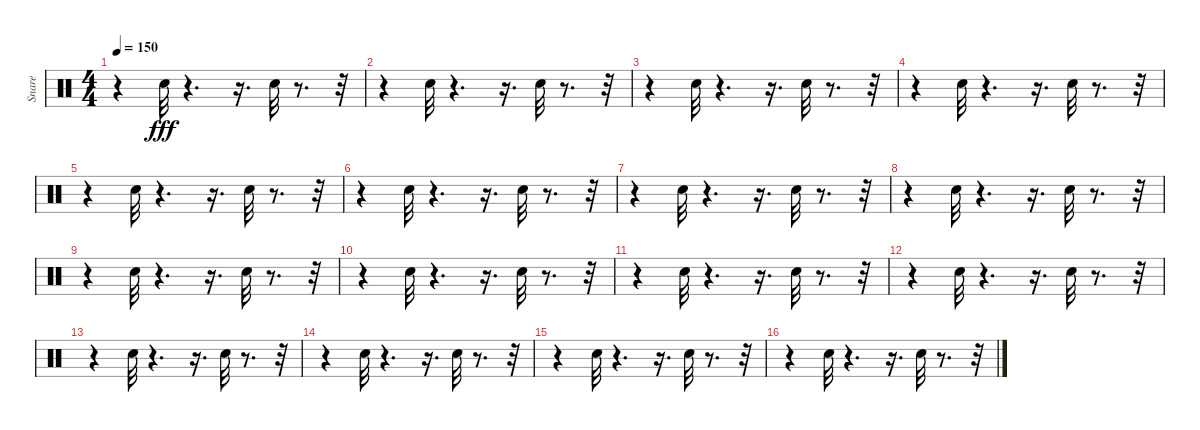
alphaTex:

\track ("Snare" "Snare") {instrument percussion}
\staff {score}
\articulation defaults
\ts (4 4)
\tempo 150
\clef neutral
\ks c
r.4{dy fff} "Electric Snare (hit)".32 r.4{d} r.16{d} "Electric Snare (hit)".32 r.8{d} r.32 |
r.4 "Electric Snare (hit)".32 r.4{d} r.16{d} "Electric Snare (hit)".32 r.8{d} r.32 |
r.4 "Electric Snare (hit)".32 r.4{d} r.16{d} "Electric Snare (hit)".32 r.8{d} r.32 |
r.4 "Electric Snare (hit)".32 r.4{d} r.16{d} "Electric Snare (hit)".32 r.8{d} r.32 |
r.4 "Electric Snare (hit)".32 r.4{d} r.16{d} "Electric Snare (hit)".32 r.8{d} r.32 |
r.4 "Electric Snare (hit)".32 r.4{d} r.16{d} "Electric Snare (hit)".32 r.8{d} r.32 |
r.4 "Electric Snare (hit)".32 r.4{d} r.16{d} "Electric Snare (hit)".32 r.8{d} r.32 |
r.4 "Electric Snare (hit)".32 r.4{d} r.16{d} "Electric Snare (hit)".32 r.8{d} r.32 |
r.4 "Electric Snare (hit)".32 r.4{d} r.16{d} "Electric Snare (hit)".32 r.8{d} r.32 |
r.4 "Electric Snare (hit)".32 r.4{d} r.16{d} "Electric Snare (hit)".32 r.8{d} r.32 |
r.4 "Electric Snare (hit)".32 r.4{d} r.16{d} "Electric Snare (hit)".32 r.8{d} r.32 |
r.4 "Electric Snare (hit)".32 r.4{d} r.16{d} "Electric Snare (hit)".32 r.8{d} r.32 |
r.4 "Electric Snare (hit)".32 r.4{d} r.16{d} "Electric Snare (hit)".32 r.8{d} r.32 |
r.4 "Electric Snare (hit)".32 r.4{d} r.16{d} "Electric Snare (hit)".32 r.8{d} r.32 |
r.4 "Electric Snare (hit)".32 r.4{d} r.16{d} "Electric Snare (hit)".32 r.8{d} r.32 |
r.4 "Electric Snare (hit)".32 r.4{d} r.16{d} "Electric Snare (hit)".32 r.8{d} r.32
